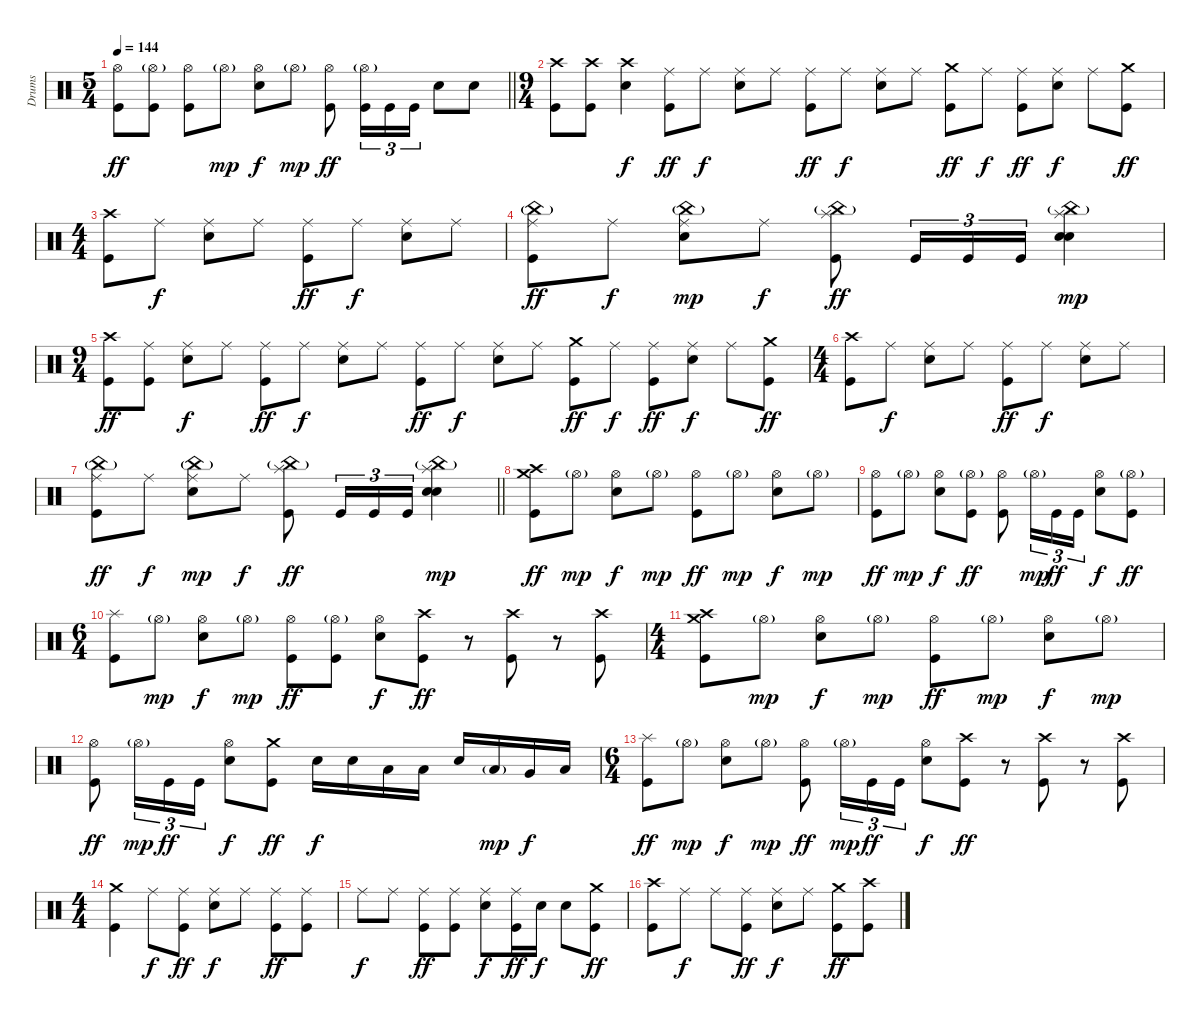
\track ("Drums" "Drums") {instrument percussion}
\staff {score}
\articulation defaults
\ts (5 4)
\tempo 144
\clef neutral
\barLineRight lightlight
\ks c
("Hi-Hat (open)" "Kick (hit)").8{dy ff} ("Hi-Hat (open)"{g} "Kick (hit)").8 ("Hi-Hat (open)" "Kick (hit)").8 "Hi-Hat (open)"{g}.8{dy mp} ("Hi-Hat (open)" "Snare (hit) 2").8{dy f} "Hi-Hat (open)"{g}.8{dy mp} ("Hi-Hat (open)" "Kick (hit)").8{dy ff} ("Hi-Hat (open)"{g} "Kick (hit)").16{tu (3 2)} "Kick (hit)".16{tu (3 2)} "Kick (hit)".16{tu (3 2)} "Snare (hit) 2".8 "Snare (hit) 2".8 |
\ts (9 4)
("Crash high (hit)" "Kick (hit)").8 ("Crash high (hit)" "Kick (hit)").8 ("Crash high (hit)" "Snare (hit) 2").4{dy f} ("Ride (middle)" "Kick (hit)").8{dy ff} "Ride (middle)".8{dy f} ("Ride (middle)" "Snare (hit) 2").8 "Ride (middle)".8 ("Ride (middle)" "Kick (hit)").8{dy ff} "Ride (middle)".8{dy f} ("Ride (middle)" "Snare (hit) 2").8 "Ride (middle)".8 ("Crash medium (hit)" "Kick (hit)").8{dy ff} "Ride (middle)".8{dy f} ("Ride (middle)" "Kick (hit)").8{dy ff} ("Ride (middle)" "Snare (hit) 2").8{dy f} "Ride (middle)".8 ("Crash medium (hit)" "Kick (hit)").8{dy ff} |
\ts (4 4)
("Crash high (hit)" "Kick (hit)").8 "Ride (middle)".8{dy f} ("Ride (middle)" "Snare (hit) 2").8 "Ride (middle)".8 ("Ride (middle)" "Kick (hit)").8{dy ff} "Ride (middle)".8{dy f} ("Ride (middle)" "Snare (hit) 2").8 "Ride (middle)".8 |
("Ride (middle)" "China (hit)"{g} "Kick (hit)").8{dy ff} "Ride (middle)".8{dy f} ("Ride (middle)" "China (hit)"{g} "Snare (hit) 2").8{dy mp} "Ride (middle)".8{dy f} ("Splash (hit)" "China (hit)"{g} "Kick (hit)").8{dy ff} "Kick (hit)".16{tu (3 2)} "Kick (hit)".16{tu (3 2)} "Kick (hit)".16{tu (3 2)} ("Splash (hit)" "China (hit)"{g} "Snare (hit) 2" "Snare (hit) 2").4{dy mp} |
\ts (9 4)
("Crash high (hit)" "Kick (hit)").8{dy ff} ("Ride (middle)" "Kick (hit)").8 ("Ride (middle)" "Snare (hit) 2").8{dy f} "Ride (middle)".8 ("Ride (middle)" "Kick (hit)").8{dy ff} "Ride (middle)".8{dy f} ("Ride (middle)" "Snare (hit) 2").8 "Ride (middle)".8 ("Ride (middle)" "Kick (hit)").8{dy ff} "Ride (middle)".8{dy f} ("Ride (middle)" "Snare (hit) 2").8 "Ride (middle)".8 ("Crash medium (hit)" "Kick (hit)").8{dy ff} "Ride (middle)".8{dy f} ("Ride (middle)" "Kick (hit)").8{dy ff} ("Ride (middle)" "Snare (hit) 2").8{dy f} "Ride (middle)".8 ("Crash medium (hit)" "Kick (hit)").8{dy ff} |
\ts (4 4)
("Crash high (hit)" "Kick (hit)").8 "Ride (middle)".8{dy f} ("Ride (middle)" "Snare (hit) 2").8 "Ride (middle)".8 ("Ride (middle)" "Kick (hit)").8{dy ff} "Ride (middle)".8{dy f} ("Ride (middle)" "Snare (hit) 2").8 "Ride (middle)".8 |
\barLineRight lightlight
("Ride (middle)" "China (hit)"{g} "Kick (hit)").8{dy ff} "Ride (middle)".8{dy f} ("Ride (middle)" "China (hit)"{g} "Snare (hit) 2").8{dy mp} "Ride (middle)".8{dy f} ("Splash (hit)" "China (hit)"{g} "Kick (hit)").8{dy ff} "Kick (hit)".16{tu (3 2)} "Kick (hit)".16{tu (3 2)} "Kick (hit)".16{tu (3 2)} ("Splash (hit)" "China (hit)"{g} "Snare (hit) 2" "Snare (hit) 2").4{dy mp} |
("Crash high (hit)" "Crash medium (hit)" "Kick (hit)").8{dy ff} "Hi-Hat (open)"{g}.8{dy mp} ("Hi-Hat (open)" "Snare (hit) 2").8{dy f} "Hi-Hat (open)"{g}.8{dy mp} ("Hi-Hat (open)" "Kick (hit)").8{dy ff} "Hi-Hat (open)"{g}.8{dy mp} ("Hi-Hat (open)" "Snare (hit) 2").8{dy f} "Hi-Hat (open)"{g}.8{dy mp} |
("Hi-Hat (open)" "Kick (hit)").8{dy ff} "Hi-Hat (open)"{g}.8{dy mp} ("Hi-Hat (open)" "Snare (hit) 2").8{dy f} ("Hi-Hat (open)"{g} "Kick (hit)").8{dy ff} ("Hi-Hat (open)" "Kick (hit)").8 "Hi-Hat (open)"{g}.16{tu (3 2) dy mp} "Kick (hit)".16{tu (3 2) dy ff} "Kick (hit)".16{tu (3 2)} ("Hi-Hat (open)" "Snare (hit) 2").8{dy f} ("Hi-Hat (open)"{g} "Kick (hit)").8{dy ff} |
\ts (6 4)
("Splash (hit)" "Kick (hit)").8 "Hi-Hat (open)"{g}.8{dy mp} ("Hi-Hat (open)" "Snare (hit) 2").8{dy f} "Hi-Hat (open)"{g}.8{dy mp} ("Hi-Hat (open)" "Kick (hit)").8{dy ff} ("Hi-Hat (open)"{g} "Kick (hit)").8 ("Hi-Hat (open)" "Snare (hit) 2").8{dy f} ("Crash high (hit)" "Kick (hit)").8{dy ff} r.8 ("Crash high (hit)" "Kick (hit)").8 r.8 ("Crash high (hit)" "Kick (hit)").8 |
\ts (4 4)
("Crash high (hit)" "Crash medium (hit)" "Kick (hit)").8 "Hi-Hat (open)"{g}.8{dy mp} ("Hi-Hat (open)" "Snare (hit) 2").8{dy f} "Hi-Hat (open)"{g}.8{dy mp} ("Hi-Hat (open)" "Kick (hit)").8{dy ff} "Hi-Hat (open)"{g}.8{dy mp} ("Hi-Hat (open)" "Snare (hit) 2").8{dy f} "Hi-Hat (open)"{g}.8{dy mp} |
("Hi-Hat (open)" "Kick (hit)").8{dy ff} "Hi-Hat (open)"{g}.16{tu (3 2) dy mp} "Kick (hit)".16{tu (3 2) dy ff} "Kick (hit)".16{tu (3 2)} ("Hi-Hat (open)" "Snare (hit) 2").8{dy f} ("Crash medium (hit)" "Kick (hit)").8{dy ff} "Snare (hit) 2".16{dy f} "Snare (hit) 2".16 "Low Tom (hit)".16 "Low Tom (hit)".16 "Snare (hit) 2".16 "Low Tom (hit)"{g}.16{dy mp} "Very Low Tom (hit)".16{dy f} "Low Floor Tom (hit)".16 |
\ts (6 4)
("Splash (hit)" "Kick (hit)").8{dy ff} "Hi-Hat (open)"{g}.8{dy mp} ("Hi-Hat (open)" "Snare (hit) 2").8{dy f} "Hi-Hat (open)"{g}.8{dy mp} ("Hi-Hat (open)" "Kick (hit)").8{dy ff} "Hi-Hat (open)"{g}.16{tu (3 2) dy mp} "Kick (hit)".16{tu (3 2) dy ff} "Kick (hit)".16{tu (3 2)} ("Hi-Hat (open)" "Snare (hit) 2").8{dy f} ("Crash high (hit)" "Kick (hit)").8{dy ff} r.8 ("Crash high (hit)" "Kick (hit)").8 r.8 ("Crash high (hit)" "Kick (hit)").8 |
\ts (4 4)
("Crash medium (hit)" "Kick (hit)").4 "Ride (middle)".8{dy f} ("Ride (middle)" "Kick (hit)").8{dy ff} ("Ride (middle)" "Snare (hit) 2").8{dy f} "Ride (middle)".8 ("Ride (middle)" "Kick (hit)").8{dy ff} ("Ride (middle)" "Kick (hit)").8 |
"Ride (middle)".8{dy f} "Ride (middle)".8 ("Ride (middle)" "Kick (hit)").8{dy ff} ("Ride (middle)" "Kick (hit)").8 ("Ride (middle)" "Snare (hit) 2").8{dy f} ("Ride (middle)" "Kick (hit)").16{dy ff} "Snare (hit) 2".16{dy f} "Snare (hit) 2".8 ("Crash medium (hit)" "Kick (hit)").8{dy ff} |
("Crash high (hit)" "Kick (hit)").8 "Ride (middle)".8{dy f} "Ride (middle)".8 ("Ride (middle)" "Kick (hit)").8{dy ff} ("Ride (middle)" "Snare (hit) 2").8{dy f} "Ride (middle)".8 ("Crash medium (hit)" "Kick (hit)").8{dy ff} ("Crash high (hit)" "Kick (hit)").8
